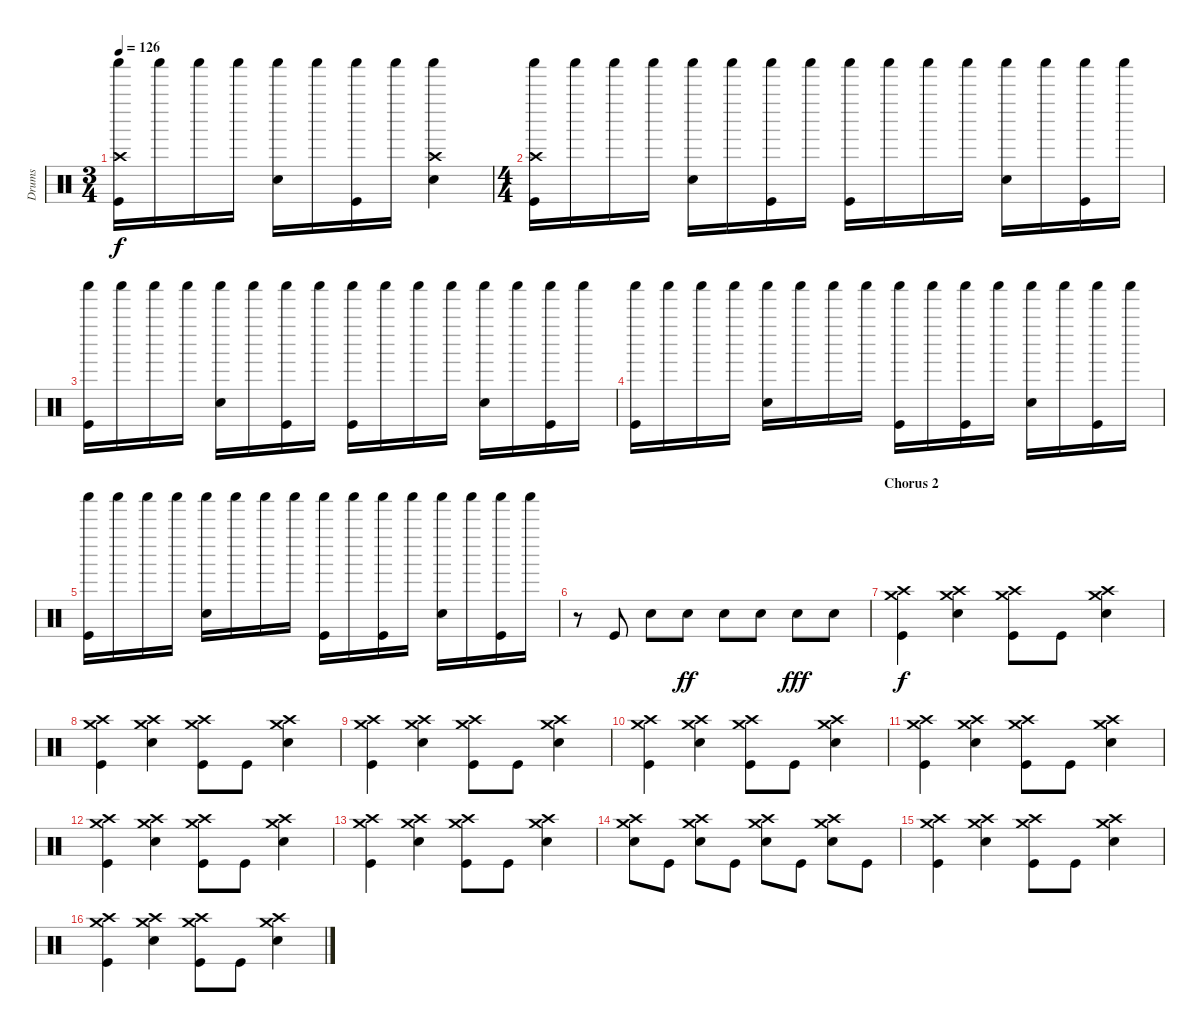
\track ("Drums" "Drums") {instrument percussion}
\staff {score}
\articulation defaults
\ts (3 4)
\tempo 126
\clef neutral
\ks c
("Shaker (hit)" "Crash high (hit)" "Kick (hit)").16{dy f} "Shaker (hit)".16 "Shaker (hit)".16 "Shaker (hit)".16 ("Shaker (hit)" "Snare (hit) 2").16 "Shaker (hit)".16 ("Shaker (hit)" "Kick (hit)").16 "Shaker (hit)".16 ("Shaker (hit)" "Crash high (hit)" "Snare (hit) 2").4 |
\ts (4 4)
("Shaker (hit)" "Crash high (hit)" "Kick (hit)").16 "Shaker (hit)".16 "Shaker (hit)".16 "Shaker (hit)".16 ("Shaker (hit)" "Snare (hit) 2").16 "Shaker (hit)".16 ("Shaker (hit)" "Kick (hit)").16 "Shaker (hit)".16 ("Shaker (hit)" "Kick (hit)").16 "Shaker (hit)".16 "Shaker (hit)".16 "Shaker (hit)".16 ("Shaker (hit)" "Snare (hit) 2").16 "Shaker (hit)".16 ("Shaker (hit)" "Kick (hit)").16 "Shaker (hit)".16 |
("Shaker (hit)" "Kick (hit)").16 "Shaker (hit)".16 "Shaker (hit)".16 "Shaker (hit)".16 ("Shaker (hit)" "Snare (hit) 2").16 "Shaker (hit)".16 ("Shaker (hit)" "Kick (hit)").16 "Shaker (hit)".16 ("Shaker (hit)" "Kick (hit)").16 "Shaker (hit)".16 "Shaker (hit)".16 "Shaker (hit)".16 ("Shaker (hit)" "Snare (hit) 2").16 "Shaker (hit)".16 ("Shaker (hit)" "Kick (hit)").16 "Shaker (hit)".16 |
("Shaker (hit)" "Kick (hit)").16 "Shaker (hit)".16 "Shaker (hit)".16 "Shaker (hit)".16 ("Shaker (hit)" "Snare (hit) 2").16 "Shaker (hit)".16 "Shaker (hit)".16 "Shaker (hit)".16 ("Shaker (hit)" "Kick (hit)").16 "Shaker (hit)".16 ("Shaker (hit)" "Kick (hit)").16 "Shaker (hit)".16 ("Shaker (hit)" "Snare (hit) 2").16 "Shaker (hit)".16 ("Shaker (hit)" "Kick (hit)").16 "Shaker (hit)".16 |
("Shaker (hit)" "Kick (hit)").16 "Shaker (hit)".16 "Shaker (hit)".16 "Shaker (hit)".16 ("Shaker (hit)" "Snare (hit) 2").16 "Shaker (hit)".16 "Shaker (hit)".16 "Shaker (hit)".16 ("Shaker (hit)" "Kick (hit)").16 "Shaker (hit)".16 ("Shaker (hit)" "Kick (hit)").16 "Shaker (hit)".16 ("Shaker (hit)" "Snare (hit) 2").16 "Shaker (hit)".16 ("Shaker (hit)" "Kick (hit)").16 "Shaker (hit)".16 |
r.8 "Kick (hit)".8 "Snare (hit) 2".8 "Snare (hit) 2".8{dy ff} "Snare (hit) 2".8 "Snare (hit) 2".8 "Snare (hit) 2".8{dy fff} "Snare (hit) 2".8 |
\section ("" "Chorus 2")
("Crash high (hit)" "Crash medium (hit)" "Kick (hit)").4{dy f} ("Crash high (hit)" "Crash medium (hit)" "Snare (hit) 2").4 ("Crash high (hit)" "Crash medium (hit)" "Kick (hit)").8 "Kick (hit)".8 ("Crash high (hit)" "Crash medium (hit)" "Snare (hit) 2").4 |
("Crash high (hit)" "Crash medium (hit)" "Kick (hit)").4 ("Crash high (hit)" "Crash medium (hit)" "Snare (hit) 2").4 ("Crash high (hit)" "Crash medium (hit)" "Kick (hit)").8 "Kick (hit)".8 ("Crash high (hit)" "Crash medium (hit)" "Snare (hit) 2").4 |
("Crash high (hit)" "Crash medium (hit)" "Kick (hit)").4 ("Crash high (hit)" "Crash medium (hit)" "Snare (hit) 2").4 ("Crash high (hit)" "Crash medium (hit)" "Kick (hit)").8 "Kick (hit)".8 ("Crash high (hit)" "Crash medium (hit)" "Snare (hit) 2").4 |
("Crash high (hit)" "Crash medium (hit)" "Kick (hit)").4 ("Crash high (hit)" "Crash medium (hit)" "Snare (hit) 2").4 ("Crash high (hit)" "Crash medium (hit)" "Kick (hit)").8 "Kick (hit)".8 ("Crash high (hit)" "Crash medium (hit)" "Snare (hit) 2").4 |
("Crash high (hit)" "Crash medium (hit)" "Kick (hit)").4 ("Crash high (hit)" "Crash medium (hit)" "Snare (hit) 2").4 ("Crash high (hit)" "Crash medium (hit)" "Kick (hit)").8 "Kick (hit)".8 ("Crash high (hit)" "Crash medium (hit)" "Snare (hit) 2").4 |
("Crash high (hit)" "Crash medium (hit)" "Kick (hit)").4 ("Crash high (hit)" "Crash medium (hit)" "Snare (hit) 2").4 ("Crash high (hit)" "Crash medium (hit)" "Kick (hit)").8 "Kick (hit)".8 ("Crash high (hit)" "Crash medium (hit)" "Snare (hit) 2").4 |
("Crash high (hit)" "Crash medium (hit)" "Kick (hit)").4 ("Crash high (hit)" "Crash medium (hit)" "Snare (hit) 2").4 ("Crash high (hit)" "Crash medium (hit)" "Kick (hit)").8 "Kick (hit)".8 ("Crash high (hit)" "Crash medium (hit)" "Snare (hit) 2").4 |
("Crash high (hit)" "Crash medium (hit)" "Snare (hit) 2").8 "Kick (hit)".8 ("Crash high (hit)" "Crash medium (hit)" "Snare (hit) 2").8 "Kick (hit)".8 ("Crash high (hit)" "Crash medium (hit)" "Snare (hit) 2").8 "Kick (hit)".8 ("Crash high (hit)" "Crash medium (hit)" "Snare (hit) 2").8 "Kick (hit)".8 |
("Crash high (hit)" "Crash medium (hit)" "Kick (hit)").4 ("Crash high (hit)" "Crash medium (hit)" "Snare (hit) 2").4 ("Crash high (hit)" "Crash medium (hit)" "Kick (hit)").8 "Kick (hit)".8 ("Crash high (hit)" "Crash medium (hit)" "Snare (hit) 2").4 |
("Crash high (hit)" "Crash medium (hit)" "Kick (hit)").4 ("Crash high (hit)" "Crash medium (hit)" "Snare (hit) 2").4 ("Crash high (hit)" "Crash medium (hit)" "Kick (hit)").8 "Kick (hit)".8 ("Crash high (hit)" "Crash medium (hit)" "Snare (hit) 2").4
